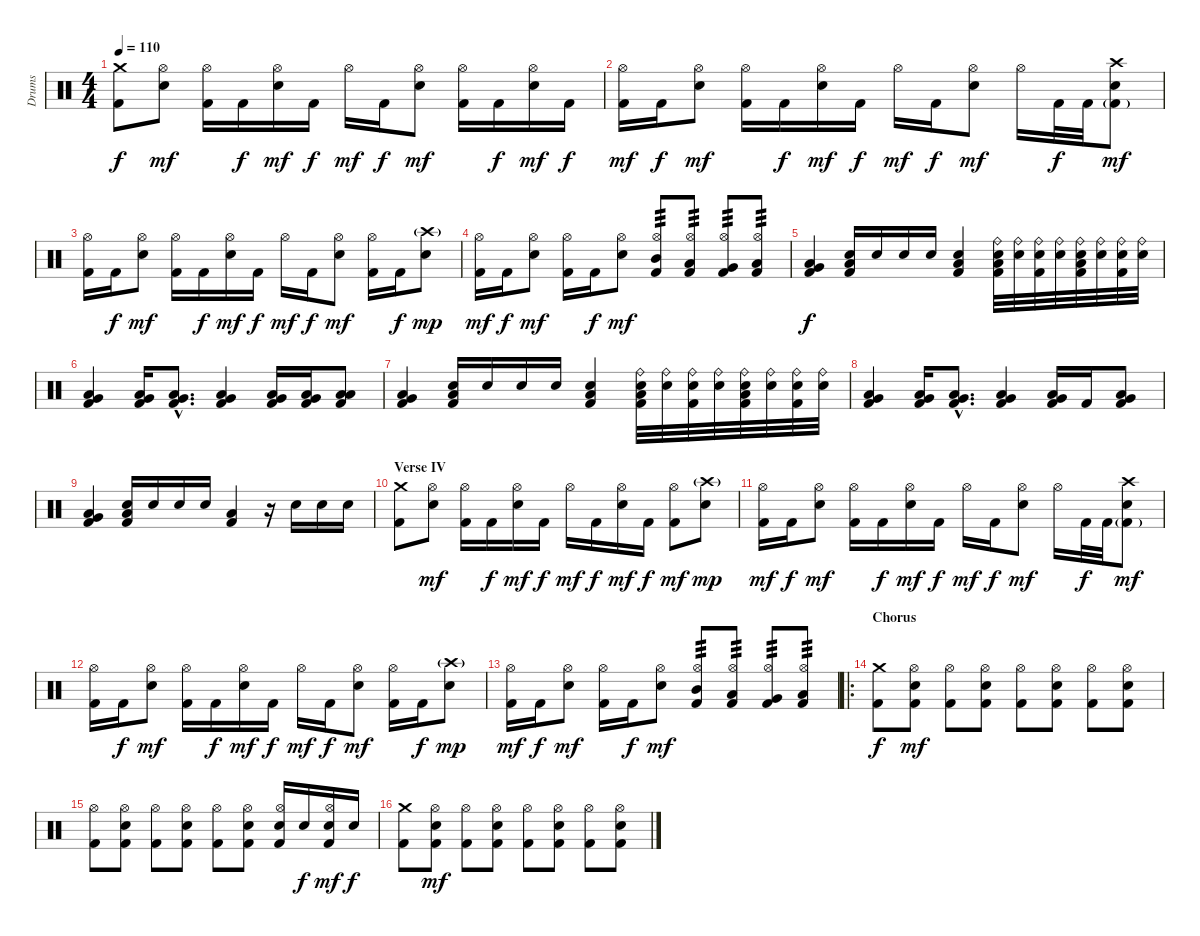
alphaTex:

\track ("Drums" "Drums") {instrument percussion}
\staff {score}
\articulation defaults
\ts (4 4)
\tempo 110
\clef neutral
\ks c
("Crash medium (hit)" "Kick (hit) 2").8{dy f} ("Hi-Hat (open)" "Electric Snare (hit)").8{dy mf} ("Hi-Hat (open)" "Kick (hit) 2").16 "Kick (hit) 2".16{dy f} ("Hi-Hat (open)" "Electric Snare (hit)").16{dy mf} "Kick (hit) 2".16{dy f} "Hi-Hat (open)".16{dy mf} "Kick (hit) 2".16{dy f} ("Hi-Hat (open)" "Electric Snare (hit)").8{dy mf} ("Hi-Hat (open)" "Kick (hit) 2").16 "Kick (hit) 2".16{dy f} ("Hi-Hat (open)" "Electric Snare (hit)").16{dy mf} "Kick (hit) 2".16{dy f} |
("Hi-Hat (open)" "Kick (hit) 2").16{dy mf} "Kick (hit) 2".16{dy f} ("Hi-Hat (open)" "Electric Snare (hit)").8{dy mf} ("Hi-Hat (open)" "Kick (hit) 2").16 "Kick (hit) 2".16{dy f} ("Hi-Hat (open)" "Electric Snare (hit)").16{dy mf} "Kick (hit) 2".16{dy f} "Hi-Hat (open)".16{dy mf} "Kick (hit) 2".16{dy f} ("Hi-Hat (open)" "Electric Snare (hit)").8{dy mf} "Hi-Hat (open)".16 "Kick (hit) 2".32{dy f} "Kick (hit) 2".32 ("Crash high (hit)" "Electric Snare (hit)" "Kick (hit) 2"{g}).8{dy mf} |
("Hi-Hat (open)" "Kick (hit) 2").16 "Kick (hit) 2".16{dy f} ("Hi-Hat (open)" "Electric Snare (hit)").8{dy mf} ("Hi-Hat (open)" "Kick (hit) 2").16 "Kick (hit) 2".16{dy f} ("Hi-Hat (open)" "Electric Snare (hit)").16{dy mf} "Kick (hit) 2".16{dy f} "Hi-Hat (open)".16{dy mf} "Kick (hit) 2".16{dy f} ("Hi-Hat (open)" "Electric Snare (hit)").8{dy mf} ("Hi-Hat (open)" "Kick (hit) 2").16 "Kick (hit) 2".16{dy f} ("Crash high (hit)"{g} "Electric Snare (hit)").8{dy mp} |
("Hi-Hat (open)" "Kick (hit) 2").16{dy mf} "Kick (hit) 2".16{dy f} ("Hi-Hat (open)" "Electric Snare (hit)").8{dy mf} ("Hi-Hat (open)" "Kick (hit) 2").16 "Kick (hit) 2".16{dy f} ("Hi-Hat (open)" "Electric Snare (hit)").8{dy mf} ("Hi-Hat (open)" "Mid Tom (hit)" "Kick (hit) 2").8{tp 3} ("Hi-Hat (open)" "Low Tom (hit)" "Kick (hit) 2").8{tp 3} ("Hi-Hat (open)" "Very Low Tom (hit)" "Kick (hit) 2").8{tp 3} ("Hi-Hat (open)" "Low Floor Tom (hit)" "Kick (hit) 2").8{tp 3} |
("Very Low Tom (hit)" "Low Floor Tom (hit)" "Kick (hit) 2").4{dy f} ("Low Floor Tom (hit)" "Electric Snare (hit)" "Kick (hit) 2").16 "Electric Snare (hit)".16 "Electric Snare (hit)".16 "Electric Snare (hit)".16 ("Low Floor Tom (hit)" "Electric Snare (hit)" "Kick (hit) 2").4 ("Ride (bell)" "Low Floor Tom (hit)" "Electric Snare (hit)" "Kick (hit) 2").32 ("Ride (bell)" "Electric Snare (hit)").32 ("Ride (bell)" "Electric Snare (hit)" "Kick (hit) 2").32 ("Ride (bell)" "Electric Snare (hit)").32 ("Ride (bell)" "Low Floor Tom (hit)" "Electric Snare (hit)" "Kick (hit) 2").32 ("Ride (bell)" "Electric Snare (hit)").32 ("Ride (bell)" "Electric Snare (hit)" "Kick (hit) 2").32 ("Ride (bell)" "Electric Snare (hit)").32 |
("Very Low Tom (hit)" "Low Floor Tom (hit)" "Kick (hit) 2").4 ("Very Low Tom (hit)" "Low Floor Tom (hit)" "Kick (hit) 2").16 ("Very Low Tom (hit)"{hac} "Low Floor Tom (hit)"{hac} "Kick (hit) 2"{hac}).8{d} ("Very Low Tom (hit)" "Low Floor Tom (hit)" "Kick (hit) 2").4 ("Very Low Tom (hit)" "Low Floor Tom (hit)" "Kick (hit) 2").16 ("Very Low Tom (hit)" "Low Floor Tom (hit)" "Kick (hit) 2").16 ("Low Tom (hit)" "Low Floor Tom (hit)" "Kick (hit) 2").8 |
("Very Low Tom (hit)" "Low Floor Tom (hit)" "Kick (hit) 2").4 ("Low Floor Tom (hit)" "Electric Snare (hit)" "Kick (hit) 2").16 "Electric Snare (hit)".16 "Electric Snare (hit)".16 "Electric Snare (hit)".16 ("Low Floor Tom (hit)" "Electric Snare (hit)" "Kick (hit) 2").4 ("Ride (bell)" "Low Floor Tom (hit)" "Electric Snare (hit)" "Kick (hit) 2").32 ("Ride (bell)" "Electric Snare (hit)").32 ("Ride (bell)" "Electric Snare (hit)" "Kick (hit) 2").32 ("Ride (bell)" "Electric Snare (hit)").32 ("Ride (bell)" "Low Floor Tom (hit)" "Electric Snare (hit)" "Kick (hit) 2").32 ("Ride (bell)" "Electric Snare (hit)").32 ("Ride (bell)" "Electric Snare (hit)" "Kick (hit) 2").32 ("Ride (bell)" "Electric Snare (hit)").32 |
("Very Low Tom (hit)" "Low Floor Tom (hit)" "Kick (hit) 2").4 ("Very Low Tom (hit)" "Low Floor Tom (hit)" "Kick (hit) 2").16 ("Very Low Tom (hit)"{hac} "Low Floor Tom (hit)"{hac} "Kick (hit) 2"{hac}).8{d} ("Very Low Tom (hit)" "Low Floor Tom (hit)" "Kick (hit) 2").4 ("Very Low Tom (hit)" "Low Floor Tom (hit)" "Kick (hit) 2").16 "Kick (hit) 2".16 ("Very Low Tom (hit)" "Low Floor Tom (hit)" "Kick (hit) 2").8 |
("Very Low Tom (hit)" "Low Floor Tom (hit)" "Kick (hit) 2").4 ("Low Floor Tom (hit)" "Electric Snare (hit)" "Kick (hit) 2").16 "Electric Snare (hit)".16 "Electric Snare (hit)".16 "Electric Snare (hit)".16 ("Low Floor Tom (hit)" "Kick (hit) 2").4 r.16 "Electric Snare (hit)".16 "Electric Snare (hit)".16 "Electric Snare (hit)".16 |
\section ("" "Verse IV")
("Crash medium (hit)" "Kick (hit) 2").8 ("Hi-Hat (open)" "Electric Snare (hit)").8{dy mf} ("Hi-Hat (open)" "Kick (hit) 2").16 "Kick (hit) 2".16{dy f} ("Hi-Hat (open)" "Electric Snare (hit)").16{dy mf} "Kick (hit) 2".16{dy f} "Hi-Hat (open)".16{dy mf} "Kick (hit) 2".16{dy f} ("Hi-Hat (open)" "Electric Snare (hit)").16{dy mf} "Kick (hit) 2".16{dy f} ("Hi-Hat (open)" "Kick (hit) 2").8{dy mf} ("Crash high (hit)"{g} "Electric Snare (hit)").8{dy mp} |
("Hi-Hat (open)" "Kick (hit) 2").16{dy mf} "Kick (hit) 2".16{dy f} ("Hi-Hat (open)" "Electric Snare (hit)").8{dy mf} ("Hi-Hat (open)" "Kick (hit) 2").16 "Kick (hit) 2".16{dy f} ("Hi-Hat (open)" "Electric Snare (hit)").16{dy mf} "Kick (hit) 2".16{dy f} "Hi-Hat (open)".16{dy mf} "Kick (hit) 2".16{dy f} ("Hi-Hat (open)" "Electric Snare (hit)").8{dy mf} "Hi-Hat (open)".16 "Kick (hit) 2".32{dy f} "Kick (hit) 2".32 ("Crash high (hit)" "Electric Snare (hit)" "Kick (hit) 2"{g}).8{dy mf} |
("Hi-Hat (open)" "Kick (hit) 2").16 "Kick (hit) 2".16{dy f} ("Hi-Hat (open)" "Electric Snare (hit)").8{dy mf} ("Hi-Hat (open)" "Kick (hit) 2").16 "Kick (hit) 2".16{dy f} ("Hi-Hat (open)" "Electric Snare (hit)").16{dy mf} "Kick (hit) 2".16{dy f} "Hi-Hat (open)".16{dy mf} "Kick (hit) 2".16{dy f} ("Hi-Hat (open)" "Electric Snare (hit)").8{dy mf} ("Hi-Hat (open)" "Kick (hit) 2").16 "Kick (hit) 2".16{dy f} ("Crash high (hit)"{g} "Electric Snare (hit)").8{dy mp} |
("Hi-Hat (open)" "Kick (hit) 2").16{dy mf} "Kick (hit) 2".16{dy f} ("Hi-Hat (open)" "Electric Snare (hit)").8{dy mf} ("Hi-Hat (open)" "Kick (hit) 2").16 "Kick (hit) 2".16{dy f} ("Hi-Hat (open)" "Electric Snare (hit)").8{dy mf} ("Hi-Hat (open)" "Mid Tom (hit)" "Kick (hit) 2").8{tp 3} ("Hi-Hat (open)" "Low Tom (hit)" "Kick (hit) 2").8{tp 3} ("Hi-Hat (open)" "Very Low Tom (hit)" "Kick (hit) 2").8{tp 3} ("Hi-Hat (open)" "Low Floor Tom (hit)" "Kick (hit) 2").8{tp 3} |
\ro
\section ("" "Chorus")
("Crash medium (hit)" "Kick (hit) 2").8{dy f} ("Hi-Hat (open)" "Electric Snare (hit)" "Kick (hit) 2").8{dy mf} ("Hi-Hat (open)" "Kick (hit) 2").8 ("Hi-Hat (open)" "Electric Snare (hit)" "Kick (hit) 2").8 ("Hi-Hat (open)" "Kick (hit) 2").8 ("Hi-Hat (open)" "Electric Snare (hit)" "Kick (hit) 2").8 ("Hi-Hat (open)" "Kick (hit) 2").8 ("Hi-Hat (open)" "Electric Snare (hit)" "Kick (hit) 2").8 |
("Hi-Hat (open)" "Kick (hit) 2").8 ("Hi-Hat (open)" "Electric Snare (hit)" "Kick (hit) 2").8 ("Hi-Hat (open)" "Kick (hit) 2").8 ("Hi-Hat (open)" "Electric Snare (hit)" "Kick (hit) 2").8 ("Hi-Hat (open)" "Kick (hit) 2").8 ("Hi-Hat (open)" "Electric Snare (hit)" "Kick (hit) 2").8 ("Hi-Hat (open)" "Electric Snare (hit)" "Kick (hit) 2").16 "Electric Snare (hit)".16{dy f} ("Hi-Hat (open)" "Electric Snare (hit)" "Kick (hit) 2").16{dy mf} "Electric Snare (hit)".16{dy f} |
("Crash medium (hit)" "Kick (hit) 2").8 ("Hi-Hat (open)" "Electric Snare (hit)" "Kick (hit) 2").8{dy mf} ("Hi-Hat (open)" "Kick (hit) 2").8 ("Hi-Hat (open)" "Electric Snare (hit)" "Kick (hit) 2").8 ("Hi-Hat (open)" "Kick (hit) 2").8 ("Hi-Hat (open)" "Electric Snare (hit)" "Kick (hit) 2").8 ("Hi-Hat (open)" "Kick (hit) 2").8 ("Hi-Hat (open)" "Electric Snare (hit)" "Kick (hit) 2").8
